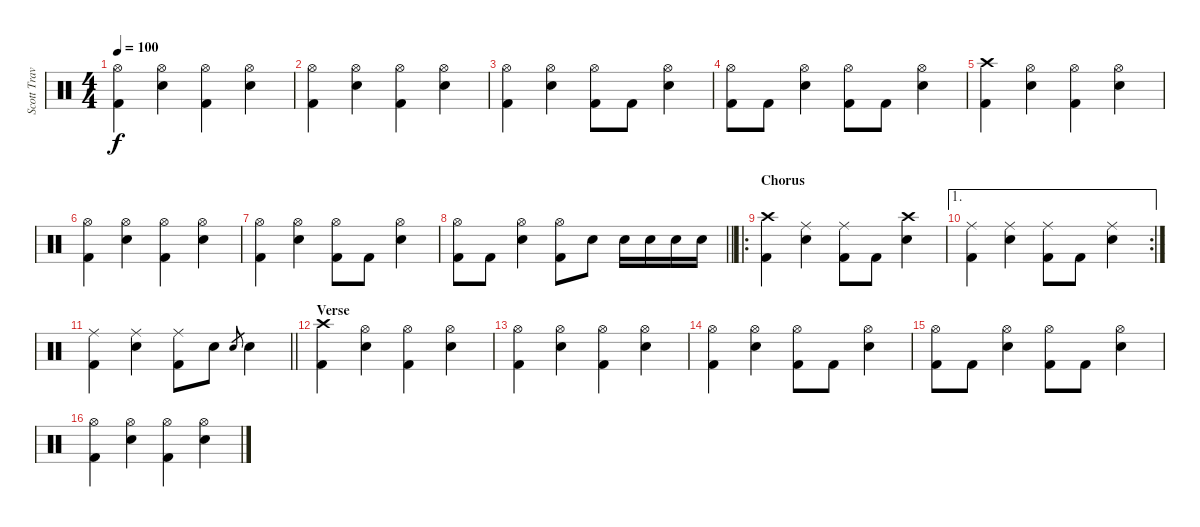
\track ("Scott Travis" "Scott Trav") {instrument percussion}
\staff {score}
\articulation defaults
\ts (4 4)
\tempo 100
\clef neutral
\ks c
("Hi-Hat (open)" "Kick (hit) 2").4{dy f} ("Hi-Hat (open)" "Snare (hit) 2").4 ("Hi-Hat (open)" "Kick (hit) 2").4 ("Hi-Hat (open)" "Snare (hit) 2").4 |
("Hi-Hat (open)" "Kick (hit) 2").4 ("Hi-Hat (open)" "Snare (hit) 2").4 ("Hi-Hat (open)" "Kick (hit) 2").4 ("Hi-Hat (open)" "Snare (hit) 2").4 |
("Hi-Hat (open)" "Kick (hit) 2").4 ("Hi-Hat (open)" "Snare (hit) 2").4 ("Hi-Hat (open)" "Kick (hit) 2").8 "Kick (hit) 2".8 ("Hi-Hat (open)" "Snare (hit) 2").4 |
("Hi-Hat (open)" "Kick (hit) 2").8 "Kick (hit) 2".8 ("Hi-Hat (open)" "Snare (hit) 2").4 ("Hi-Hat (open)" "Kick (hit) 2").8 "Kick (hit) 2".8 ("Hi-Hat (open)" "Snare (hit) 2").4 |
("Crash high (hit)" "Kick (hit) 2").4 ("Hi-Hat (open)" "Snare (hit) 2").4 ("Hi-Hat (open)" "Kick (hit) 2").4 ("Hi-Hat (open)" "Snare (hit) 2").4 |
("Hi-Hat (open)" "Kick (hit) 2").4 ("Hi-Hat (open)" "Snare (hit) 2").4 ("Hi-Hat (open)" "Kick (hit) 2").4 ("Hi-Hat (open)" "Snare (hit) 2").4 |
("Hi-Hat (open)" "Kick (hit) 2").4 ("Hi-Hat (open)" "Snare (hit) 2").4 ("Hi-Hat (open)" "Kick (hit) 2").8 "Kick (hit) 2".8 ("Hi-Hat (open)" "Snare (hit) 2").4 |
\barLineRight lightlight
("Hi-Hat (open)" "Kick (hit) 2").8 "Kick (hit) 2".8 ("Hi-Hat (open)" "Snare (hit) 2").4 ("Hi-Hat (open)" "Kick (hit) 2").8 "Snare (hit) 2".8 "Snare (hit) 2".16 "Snare (hit) 2".16 "Snare (hit) 2".16 "Snare (hit) 2".16 |
\ro
\section ("" "Chorus")
("Crash high (hit)" "Kick (hit) 2").4 ("Ride (middle)" "Snare (hit) 2").4 ("Ride (middle)" "Kick (hit) 2").8 "Kick (hit) 2".8 ("Crash high (hit)" "Snare (hit) 2").4 |
\ae 1
\rc 2
("Ride (middle)" "Kick (hit) 2").4 ("Ride (middle)" "Snare (hit) 2").4 ("Ride (middle)" "Kick (hit) 2").8 "Kick (hit) 2".8 ("Ride (middle)" "Snare (hit) 2").4 |
\barLineRight lightlight
("Ride (middle)" "Kick (hit) 2").4 ("Ride (middle)" "Snare (hit) 2").4 ("Ride (middle)" "Kick (hit) 2").8 "Snare (hit) 2".8 "Snare (hit) 2".8{gr} "Snare (hit) 2".4 |
\section ("" "Verse")
("Crash high (hit)" "Kick (hit) 2").4 ("Hi-Hat (open)" "Snare (hit) 2").4 ("Hi-Hat (open)" "Kick (hit) 2").4 ("Hi-Hat (open)" "Snare (hit) 2").4 |
("Hi-Hat (open)" "Kick (hit) 2").4 ("Hi-Hat (open)" "Snare (hit) 2").4 ("Hi-Hat (open)" "Kick (hit) 2").4 ("Hi-Hat (open)" "Snare (hit) 2").4 |
("Hi-Hat (open)" "Kick (hit) 2").4 ("Hi-Hat (open)" "Snare (hit) 2").4 ("Hi-Hat (open)" "Kick (hit) 2").8 "Kick (hit) 2".8 ("Hi-Hat (open)" "Snare (hit) 2").4 |
("Hi-Hat (open)" "Kick (hit) 2").8 "Kick (hit) 2".8 ("Hi-Hat (open)" "Snare (hit) 2").4 ("Hi-Hat (open)" "Kick (hit) 2").8 "Kick (hit) 2".8 ("Hi-Hat (open)" "Snare (hit) 2").4 |
("Hi-Hat (open)" "Kick (hit) 2").4 ("Hi-Hat (open)" "Snare (hit) 2").4 ("Hi-Hat (open)" "Kick (hit) 2").4 ("Hi-Hat (open)" "Snare (hit) 2").4
